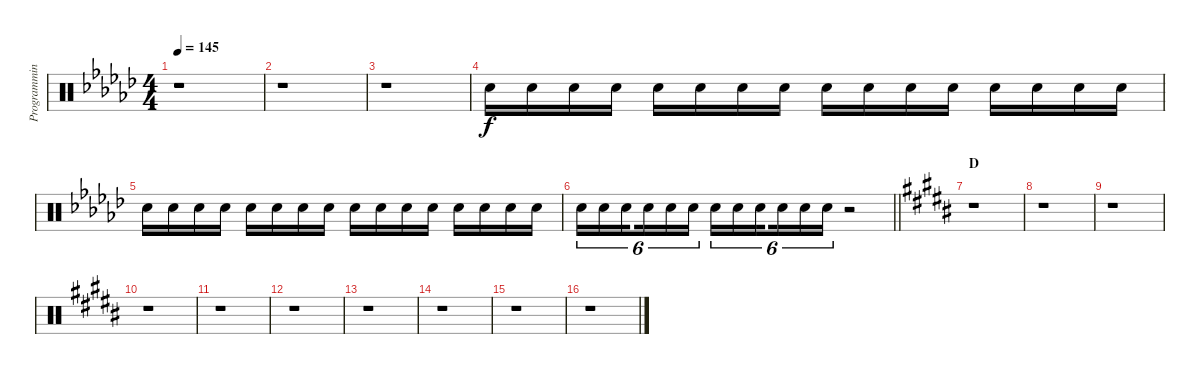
\track ("Programming Drums II" "Programmin") {instrument percussion}
\staff {score}
\articulation defaults
\ts (4 4)
\tempo 145
\clef neutral
\ks gb
r.1{dy f} |
r.1 |
r.1 |
"Electric Snare (hit)".16 "Electric Snare (hit)".16 "Electric Snare (hit)".16 "Electric Snare (hit)".16 "Electric Snare (hit)".16 "Electric Snare (hit)".16 "Electric Snare (hit)".16 "Electric Snare (hit)".16 "Electric Snare (hit)".16 "Electric Snare (hit)".16 "Electric Snare (hit)".16 "Electric Snare (hit)".16 "Electric Snare (hit)".16 "Electric Snare (hit)".16 "Electric Snare (hit)".16 "Electric Snare (hit)".16 |
"Electric Snare (hit)".16 "Electric Snare (hit)".16 "Electric Snare (hit)".16 "Electric Snare (hit)".16 "Electric Snare (hit)".16 "Electric Snare (hit)".16 "Electric Snare (hit)".16 "Electric Snare (hit)".16 "Electric Snare (hit)".16 "Electric Snare (hit)".16 "Electric Snare (hit)".16 "Electric Snare (hit)".16 "Electric Snare (hit)".16 "Electric Snare (hit)".16 "Electric Snare (hit)".16 "Electric Snare (hit)".16 |
\barLineRight lightlight "Electric Snare (hit)".16{tu (6 4)} "Electric Snare (hit)".16{tu (6 4)} "Electric Snare (hit)".16{tu (6 4) beam splitsecondary} "Electric Snare (hit)".16{tu (6 4)} "Electric Snare (hit)".16{tu (6 4)} "Electric Snare (hit)".16{tu (6 4)} "Electric Snare (hit)".16{tu (6 4)} "Electric Snare (hit)".16{tu (6 4)} "Electric Snare (hit)".16{tu (6 4) beam splitsecondary} "Electric Snare (hit)".16{tu (6 4)} "Electric Snare (hit)".16{tu (6 4)} "Electric Snare (hit)".16{tu (6 4)}
r.2 |
\section ("" "D")
\ks b
r.1 |
r.1 |
r.1 |
r.1 |
r.1 |
r.1 |
r.1 |
r.1 |
r.1 |
r.1
